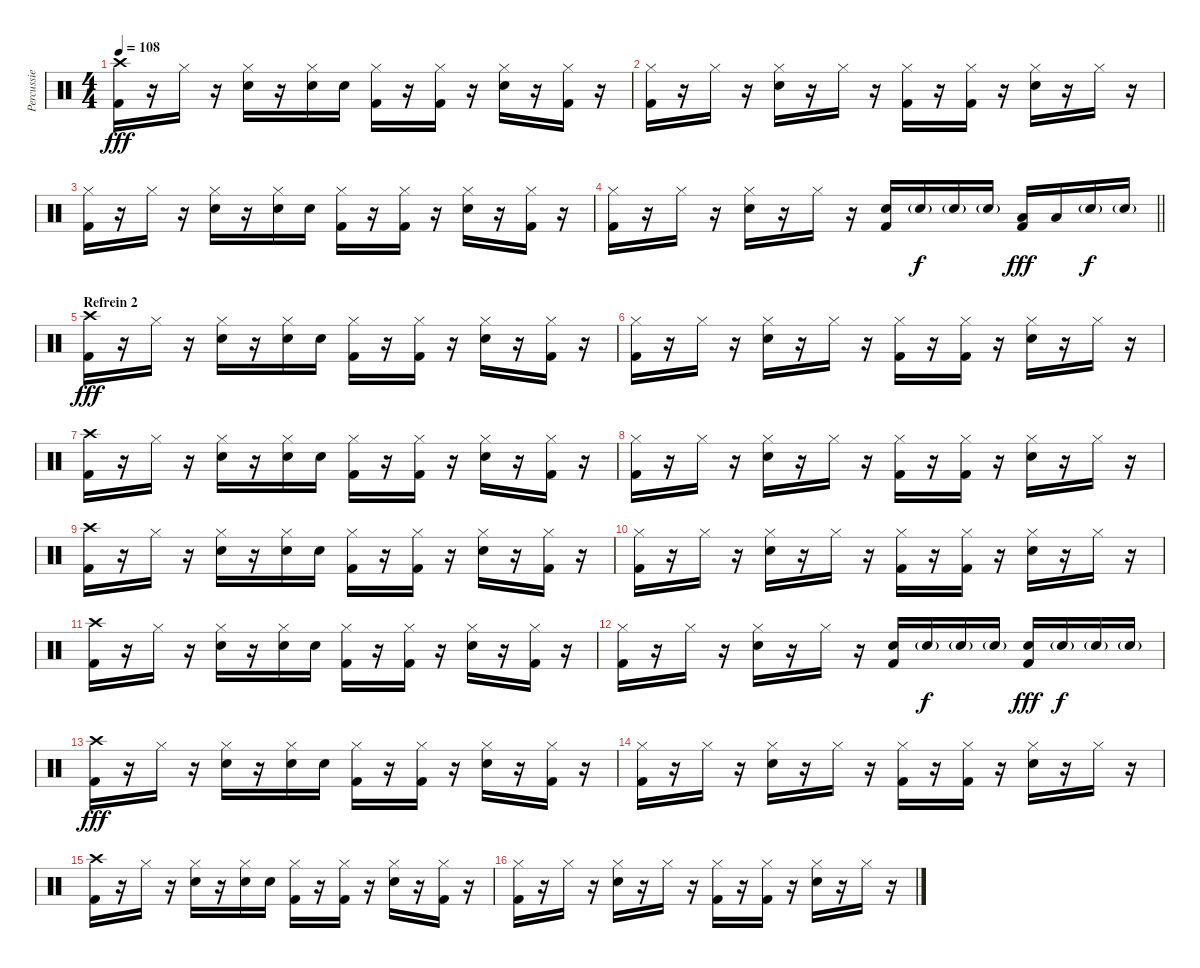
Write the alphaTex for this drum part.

\track ("Percussie" "Percussie") {instrument percussion}
\staff {score}
\articulation defaults
\ts (4 4)
\tempo 108
\clef neutral
\ks c
("Crash high (hit)" "Kick (hit) 2").16{dy fff} r.16 "Hi-Hat (closed)".16 r.16 ("Hi-Hat (closed)" "Snare (hit) 2").16 r.16 ("Hi-Hat (closed)" "Snare (hit) 2").16 "Snare (hit) 2".16 ("Hi-Hat (closed)" "Kick (hit) 2").16 r.16 ("Hi-Hat (closed)" "Kick (hit) 2").16 r.16 ("Hi-Hat (closed)" "Snare (hit) 2").16 r.16 ("Hi-Hat (closed)" "Kick (hit) 2").16 r.16 |
("Hi-Hat (closed)" "Kick (hit) 2").16 r.16 "Hi-Hat (closed)".16 r.16 ("Hi-Hat (closed)" "Snare (hit) 2").16 r.16 "Hi-Hat (closed)".16 r.16 ("Hi-Hat (closed)" "Kick (hit) 2").16 r.16 ("Hi-Hat (closed)" "Kick (hit) 2").16 r.16 ("Hi-Hat (closed)" "Snare (hit) 2").16 r.16 "Hi-Hat (closed)".16 r.16 |
("Hi-Hat (closed)" "Kick (hit) 2").16 r.16 "Hi-Hat (closed)".16 r.16 ("Hi-Hat (closed)" "Snare (hit) 2").16 r.16 ("Hi-Hat (closed)" "Snare (hit) 2").16 "Snare (hit) 2".16 ("Hi-Hat (closed)" "Kick (hit) 2").16 r.16 ("Hi-Hat (closed)" "Kick (hit) 2").16 r.16 ("Hi-Hat (closed)" "Snare (hit) 2").16 r.16 ("Hi-Hat (closed)" "Kick (hit) 2").16 r.16 |
\barLineRight lightlight
("Hi-Hat (closed)" "Kick (hit) 2").16 r.16 "Hi-Hat (closed)".16 r.16 ("Hi-Hat (closed)" "Snare (hit) 2").16 r.16 "Hi-Hat (closed)".16 r.16 ("Snare (hit) 2" "Kick (hit) 2").16 "Snare (hit) 2"{g}.16{dy f} "Snare (hit) 2"{g}.16 "Snare (hit) 2"{g}.16 ("Low Tom (hit)" "Kick (hit) 2").16{dy fff} "Low Floor Tom (hit)".16 "Snare (hit) 2"{g}.16{dy f} "Snare (hit) 2"{g}.16 |
\section ("" "Refrein 2")
("Crash high (hit)" "Kick (hit) 2").16{dy fff} r.16 "Hi-Hat (closed)".16 r.16 ("Hi-Hat (closed)" "Snare (hit) 2").16 r.16 ("Hi-Hat (closed)" "Snare (hit) 2").16 "Snare (hit) 2".16 ("Hi-Hat (closed)" "Kick (hit) 2").16 r.16 ("Hi-Hat (closed)" "Kick (hit) 2").16 r.16 ("Hi-Hat (closed)" "Snare (hit) 2").16 r.16 ("Hi-Hat (closed)" "Kick (hit) 2").16 r.16 |
("Hi-Hat (closed)" "Kick (hit) 2").16 r.16 "Hi-Hat (closed)".16 r.16 ("Hi-Hat (closed)" "Snare (hit) 2").16 r.16 "Hi-Hat (closed)".16 r.16 ("Hi-Hat (closed)" "Kick (hit) 2").16 r.16 ("Hi-Hat (closed)" "Kick (hit) 2").16 r.16 ("Hi-Hat (closed)" "Snare (hit) 2").16 r.16 "Hi-Hat (closed)".16 r.16 |
("Crash high (hit)" "Kick (hit) 2").16 r.16 "Hi-Hat (closed)".16 r.16 ("Hi-Hat (closed)" "Snare (hit) 2").16 r.16 ("Hi-Hat (closed)" "Snare (hit) 2").16 "Snare (hit) 2".16 ("Hi-Hat (closed)" "Kick (hit) 2").16 r.16 ("Hi-Hat (closed)" "Kick (hit) 2").16 r.16 ("Hi-Hat (closed)" "Snare (hit) 2").16 r.16 ("Hi-Hat (closed)" "Kick (hit) 2").16 r.16 |
("Hi-Hat (closed)" "Kick (hit) 2").16 r.16 "Hi-Hat (closed)".16 r.16 ("Hi-Hat (closed)" "Snare (hit) 2").16 r.16 "Hi-Hat (closed)".16 r.16 ("Hi-Hat (closed)" "Kick (hit) 2").16 r.16 ("Hi-Hat (closed)" "Kick (hit) 2").16 r.16 ("Hi-Hat (closed)" "Snare (hit) 2").16 r.16 "Hi-Hat (closed)".16 r.16 |
("Crash high (hit)" "Kick (hit) 2").16 r.16 "Hi-Hat (closed)".16 r.16 ("Hi-Hat (closed)" "Snare (hit) 2").16 r.16 ("Hi-Hat (closed)" "Snare (hit) 2").16 "Snare (hit) 2".16 ("Hi-Hat (closed)" "Kick (hit) 2").16 r.16 ("Hi-Hat (closed)" "Kick (hit) 2").16 r.16 ("Hi-Hat (closed)" "Snare (hit) 2").16 r.16 ("Hi-Hat (closed)" "Kick (hit) 2").16 r.16 |
("Hi-Hat (closed)" "Kick (hit) 2").16 r.16 "Hi-Hat (closed)".16 r.16 ("Hi-Hat (closed)" "Snare (hit) 2").16 r.16 "Hi-Hat (closed)".16 r.16 ("Hi-Hat (closed)" "Kick (hit) 2").16 r.16 ("Hi-Hat (closed)" "Kick (hit) 2").16 r.16 ("Hi-Hat (closed)" "Snare (hit) 2").16 r.16 "Hi-Hat (closed)".16 r.16 |
("Crash high (hit)" "Kick (hit) 2").16 r.16 "Hi-Hat (closed)".16 r.16 ("Hi-Hat (closed)" "Snare (hit) 2").16 r.16 ("Hi-Hat (closed)" "Snare (hit) 2").16 "Snare (hit) 2".16 ("Hi-Hat (closed)" "Kick (hit) 2").16 r.16 ("Hi-Hat (closed)" "Kick (hit) 2").16 r.16 ("Hi-Hat (closed)" "Snare (hit) 2").16 r.16 ("Hi-Hat (closed)" "Kick (hit) 2").16 r.16 |
("Hi-Hat (closed)" "Kick (hit) 2").16 r.16 "Hi-Hat (closed)".16 r.16 ("Hi-Hat (closed)" "Snare (hit) 2").16 r.16 "Hi-Hat (closed)".16 r.16 ("Snare (hit) 2" "Kick (hit) 2").16 "Snare (hit) 2"{g}.16{dy f} "Snare (hit) 2"{g}.16 "Snare (hit) 2"{g}.16 ("Snare (hit) 2" "Kick (hit) 2").16{dy fff} "Snare (hit) 2"{g}.16{dy f} "Snare (hit) 2"{g}.16 "Snare (hit) 2"{g}.16 |
("Crash high (hit)" "Kick (hit) 2").16{dy fff} r.16 "Hi-Hat (closed)".16 r.16 ("Hi-Hat (closed)" "Snare (hit) 2").16 r.16 ("Hi-Hat (closed)" "Snare (hit) 2").16 "Snare (hit) 2".16 ("Hi-Hat (closed)" "Kick (hit) 2").16 r.16 ("Hi-Hat (closed)" "Kick (hit) 2").16 r.16 ("Hi-Hat (closed)" "Snare (hit) 2").16 r.16 ("Hi-Hat (closed)" "Kick (hit) 2").16 r.16 |
("Hi-Hat (closed)" "Kick (hit) 2").16 r.16 "Hi-Hat (closed)".16 r.16 ("Hi-Hat (closed)" "Snare (hit) 2").16 r.16 "Hi-Hat (closed)".16 r.16 ("Hi-Hat (closed)" "Kick (hit) 2").16 r.16 ("Hi-Hat (closed)" "Kick (hit) 2").16 r.16 ("Hi-Hat (closed)" "Snare (hit) 2").16 r.16 "Hi-Hat (closed)".16 r.16 |
("Crash high (hit)" "Kick (hit) 2").16 r.16 "Hi-Hat (closed)".16 r.16 ("Hi-Hat (closed)" "Snare (hit) 2").16 r.16 ("Hi-Hat (closed)" "Snare (hit) 2").16 "Snare (hit) 2".16 ("Hi-Hat (closed)" "Kick (hit) 2").16 r.16 ("Hi-Hat (closed)" "Kick (hit) 2").16 r.16 ("Hi-Hat (closed)" "Snare (hit) 2").16 r.16 ("Hi-Hat (closed)" "Kick (hit) 2").16 r.16 |
("Hi-Hat (closed)" "Kick (hit) 2").16 r.16 "Hi-Hat (closed)".16 r.16 ("Hi-Hat (closed)" "Snare (hit) 2").16 r.16 "Hi-Hat (closed)".16 r.16 ("Hi-Hat (closed)" "Kick (hit) 2").16 r.16 ("Hi-Hat (closed)" "Kick (hit) 2").16 r.16 ("Hi-Hat (closed)" "Snare (hit) 2").16 r.16 "Hi-Hat (closed)".16 r.16
